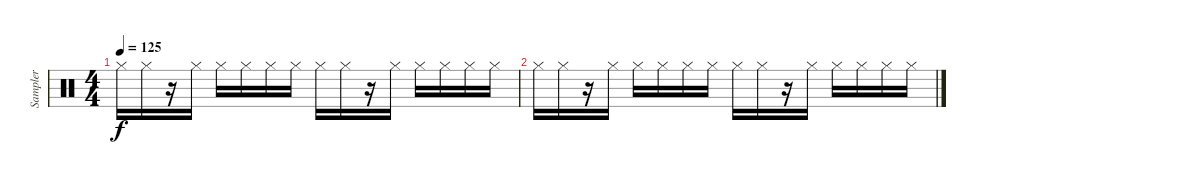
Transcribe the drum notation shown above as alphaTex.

\track ("Sampler" "Sampler") {instrument percussion}
\staff {score}
\articulation defaults
\ts (4 4)
\tempo 125
\clef neutral
\ks c "Hi-Hat (closed)".16{dy f} "Hi-Hat (closed)".16
r.16 "Hi-Hat (closed)".16 "Hi-Hat (closed)".16 "Hi-Hat (closed)".16 "Hi-Hat (closed)".16 "Hi-Hat (closed)".16 "Hi-Hat (closed)".16 "Hi-Hat (closed)".16 r.16 "Hi-Hat (closed)".16 "Hi-Hat (closed)".16 "Hi-Hat (closed)".16 "Hi-Hat (closed)".16 "Hi-Hat (closed)".16 |
"Hi-Hat (closed)".16 "Hi-Hat (closed)".16 r.16 "Hi-Hat (closed)".16 "Hi-Hat (closed)".16 "Hi-Hat (closed)".16 "Hi-Hat (closed)".16 "Hi-Hat (closed)".16 "Hi-Hat (closed)".16 "Hi-Hat (closed)".16 r.16 "Hi-Hat (closed)".16 "Hi-Hat (closed)".16 "Hi-Hat (closed)".16 "Hi-Hat (closed)".16 "Hi-Hat (closed)".16
